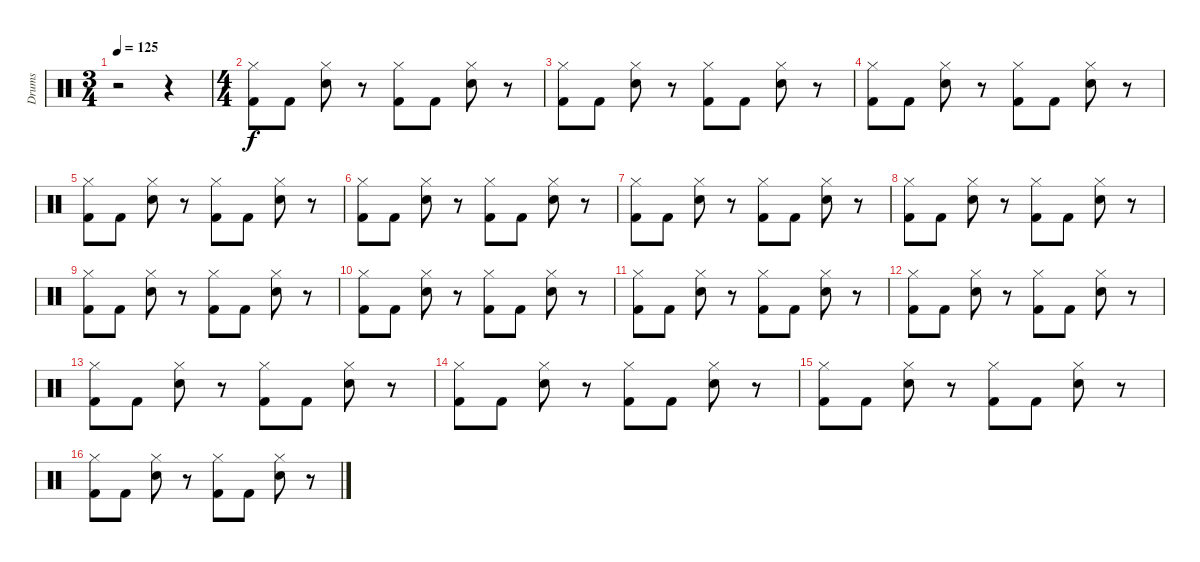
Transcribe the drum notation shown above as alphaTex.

\track ("Drums" "Drums") {instrument percussion}
\staff {score}
\articulation defaults
\ts (3 4)
\tempo 125
\clef neutral
\ks c
r.2{dy f} r.4 |
\ts (4 4)
("Hi-Hat (closed)" "Kick (hit) 2").8 "Kick (hit) 2".8 ("Hi-Hat (closed)" "Electric Snare (hit)").8 r.8 ("Hi-Hat (closed)" "Kick (hit) 2").8 "Kick (hit) 2".8 ("Hi-Hat (closed)" "Electric Snare (hit)").8 r.8 |
("Hi-Hat (closed)" "Kick (hit) 2").8 "Kick (hit) 2".8 ("Hi-Hat (closed)" "Electric Snare (hit)").8 r.8 ("Hi-Hat (closed)" "Kick (hit) 2").8 "Kick (hit) 2".8 ("Hi-Hat (closed)" "Electric Snare (hit)").8 r.8 |
("Hi-Hat (closed)" "Kick (hit) 2").8 "Kick (hit) 2".8 ("Hi-Hat (closed)" "Electric Snare (hit)").8 r.8 ("Hi-Hat (closed)" "Kick (hit) 2").8 "Kick (hit) 2".8 ("Hi-Hat (closed)" "Electric Snare (hit)").8 r.8 |
("Hi-Hat (closed)" "Kick (hit) 2").8 "Kick (hit) 2".8 ("Hi-Hat (closed)" "Electric Snare (hit)").8 r.8 ("Hi-Hat (closed)" "Kick (hit) 2").8 "Kick (hit) 2".8 ("Hi-Hat (closed)" "Electric Snare (hit)").8 r.8 |
("Hi-Hat (closed)" "Kick (hit) 2").8 "Kick (hit) 2".8 ("Hi-Hat (closed)" "Electric Snare (hit)").8 r.8 ("Hi-Hat (closed)" "Kick (hit) 2").8 "Kick (hit) 2".8 ("Hi-Hat (closed)" "Electric Snare (hit)").8 r.8 |
("Hi-Hat (closed)" "Kick (hit) 2").8 "Kick (hit) 2".8 ("Hi-Hat (closed)" "Electric Snare (hit)").8 r.8 ("Hi-Hat (closed)" "Kick (hit) 2").8 "Kick (hit) 2".8 ("Hi-Hat (closed)" "Electric Snare (hit)").8 r.8 |
("Hi-Hat (closed)" "Kick (hit) 2").8 "Kick (hit) 2".8 ("Hi-Hat (closed)" "Electric Snare (hit)").8 r.8 ("Hi-Hat (closed)" "Kick (hit) 2").8 "Kick (hit) 2".8 ("Hi-Hat (closed)" "Electric Snare (hit)").8 r.8 |
("Hi-Hat (closed)" "Kick (hit) 2").8 "Kick (hit) 2".8 ("Hi-Hat (closed)" "Electric Snare (hit)").8 r.8 ("Hi-Hat (closed)" "Kick (hit) 2").8 "Kick (hit) 2".8 ("Hi-Hat (closed)" "Electric Snare (hit)").8 r.8 |
("Hi-Hat (closed)" "Kick (hit) 2").8 "Kick (hit) 2".8 ("Hi-Hat (closed)" "Electric Snare (hit)").8 r.8 ("Hi-Hat (closed)" "Kick (hit) 2").8 "Kick (hit) 2".8 ("Hi-Hat (closed)" "Electric Snare (hit)").8 r.8 |
("Hi-Hat (closed)" "Kick (hit) 2").8 "Kick (hit) 2".8 ("Hi-Hat (closed)" "Electric Snare (hit)").8 r.8 ("Hi-Hat (closed)" "Kick (hit) 2").8 "Kick (hit) 2".8 ("Hi-Hat (closed)" "Electric Snare (hit)").8 r.8 |
("Hi-Hat (closed)" "Kick (hit) 2").8 "Kick (hit) 2".8 ("Hi-Hat (closed)" "Electric Snare (hit)").8 r.8 ("Hi-Hat (closed)" "Kick (hit) 2").8 "Kick (hit) 2".8 ("Hi-Hat (closed)" "Electric Snare (hit)").8 r.8 |
("Hi-Hat (closed)" "Kick (hit) 2").8 "Kick (hit) 2".8 ("Hi-Hat (closed)" "Electric Snare (hit)").8 r.8 ("Hi-Hat (closed)" "Kick (hit) 2").8 "Kick (hit) 2".8 ("Hi-Hat (closed)" "Electric Snare (hit)").8 r.8 |
("Hi-Hat (closed)" "Kick (hit) 2").8 "Kick (hit) 2".8 ("Hi-Hat (closed)" "Electric Snare (hit)").8 r.8 ("Hi-Hat (closed)" "Kick (hit) 2").8 "Kick (hit) 2".8 ("Hi-Hat (closed)" "Electric Snare (hit)").8 r.8 |
("Hi-Hat (closed)" "Kick (hit) 2").8 "Kick (hit) 2".8 ("Hi-Hat (closed)" "Electric Snare (hit)").8 r.8 ("Hi-Hat (closed)" "Kick (hit) 2").8 "Kick (hit) 2".8 ("Hi-Hat (closed)" "Electric Snare (hit)").8 r.8 |
("Hi-Hat (closed)" "Kick (hit) 2").8 "Kick (hit) 2".8 ("Hi-Hat (closed)" "Electric Snare (hit)").8 r.8 ("Hi-Hat (closed)" "Kick (hit) 2").8 "Kick (hit) 2".8 ("Hi-Hat (closed)" "Electric Snare (hit)").8 r.8
